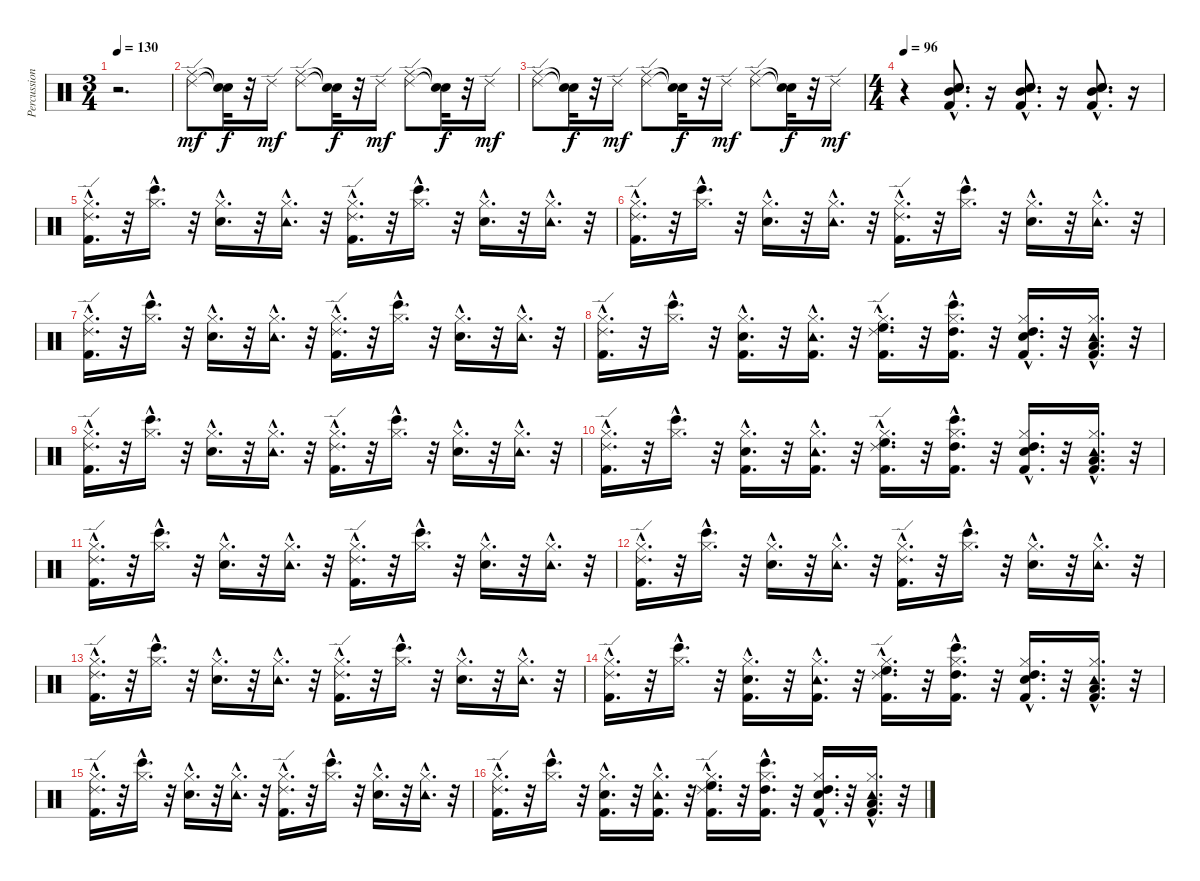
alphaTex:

\track ("Percussion (Channel 10)" "Percussion") {instrument percussion}
\staff {score}
\articulation defaults
\ts (3 4)
\tempo 130
\clef neutral
\ks c
r.2{d dy f} |
("Ride (edge) 2" "Ride (middle)").8{dy mf} ("Snare (hit)"{t} "Snare (hit)"{t}).32{dy f} r.32 "Ride (edge) 2".16{dy mf} ("Ride (edge) 2" "Ride (middle)").8 ("Snare (hit)"{t} "Snare (hit)"{t}).32{dy f} r.32 "Ride (edge) 2".16{dy mf} ("Ride (edge) 2" "Ride (middle)").8 ("Snare (hit)"{t} "Snare (hit)"{t}).32{dy f} r.32 "Ride (edge) 2".16{dy mf} |
("Ride (edge) 2" "Ride (middle)").8 ("Snare (hit)"{t} "Snare (hit)"{t}).32{dy f} r.32 "Ride (edge) 2".16{dy mf} ("Ride (edge) 2" "Ride (middle)").8 ("Snare (hit)"{t} "Snare (hit)"{t}).32{dy f} r.32 "Ride (edge) 2".16{dy mf} ("Ride (edge) 2" "Ride (middle)").8 ("Snare (hit)"{t} "Snare (hit)"{t}).32{dy f} r.32 "Ride (edge) 2".16{dy mf} |
\ts (4 4)
\tempo 96
r.4 ("Mid Tom (hit)"{hac} "Electric Snare (hit)"{hac} "Kick (hit) 2"{hac} "Snare (hit) 2"{hac}).8{d} r.16 ("Mid Tom (hit)"{hac} "Electric Snare (hit)"{hac} "Kick (hit) 2"{hac} "Snare (hit) 2"{hac}).8{d} r.16 ("Snare (hit) 2"{hac} "Kick (hit) 2"{hac} "Electric Snare (hit)"{hac} "Mid Tom (hit)"{hac}).8{d} r.16 |
("Hi-Hat (closed)"{hac} "Kick (hit) 2"{hac} "Ride (edge) 2"{hac}).16{d} r.32 ("Hi-Hat (closed)"{hac} "Bongo High (hit)"{hac}).16{d} r.32 ("Hi-Hat (closed)"{hac} "Snare (hit) 2"{hac}).16{d} r.32 ("Hi-Hat (closed)"{hac} "Tambourine (hit)"{hac}).16{d} r.32 ("Hi-Hat (closed)"{hac} "Kick (hit) 2"{hac} "Ride (edge) 2"{hac}).16{d} r.32 ("Hi-Hat (closed)"{hac} "Bongo High (hit)"{hac}).16{d} r.32 ("Hi-Hat (closed)"{hac} "Snare (hit) 2"{hac}).16{d} r.32 ("Hi-Hat (closed)"{hac} "Tambourine (hit)"{hac}).16{d} r.32 |
("Ride (edge) 2"{hac} "Kick (hit) 2"{hac} "Hi-Hat (closed)"{hac}).16{d} r.32 ("Bongo High (hit)"{hac} "Hi-Hat (closed)"{hac}).16{d} r.32 ("Snare (hit) 2"{hac} "Hi-Hat (closed)"{hac}).16{d} r.32 ("Hi-Hat (closed)"{hac} "Tambourine (hit)"{hac}).16{d} r.32 ("Ride (edge) 2"{hac} "Kick (hit) 2"{hac} "Hi-Hat (closed)"{hac}).16{d} r.32 ("Bongo High (hit)"{hac} "Hi-Hat (closed)"{hac}).16{d} r.32 ("Hi-Hat (closed)"{hac} "Snare (hit) 2"{hac}).16{d} r.32 ("Tambourine (hit)"{hac} "Hi-Hat (closed)"{hac}).16{d} r.32 |
("Ride (edge) 2"{hac} "Kick (hit) 2"{hac} "Hi-Hat (closed)"{hac}).16{d} r.32 ("Bongo High (hit)"{hac} "Hi-Hat (closed)"{hac}).16{d} r.32 ("Snare (hit) 2"{hac} "Hi-Hat (closed)"{hac}).16{d} r.32 ("Tambourine (hit)"{hac} "Hi-Hat (closed)"{hac}).16{d} r.32 ("Ride (edge) 2"{hac} "Kick (hit) 2"{hac} "Hi-Hat (closed)"{hac}).16{d} r.32 ("Bongo High (hit)"{hac} "Hi-Hat (closed)"{hac}).16{d} r.32 ("Snare (hit) 2"{hac} "Hi-Hat (closed)"{hac}).16{d} r.32 ("Tambourine (hit)"{hac} "Hi-Hat (closed)"{hac}).16{d} r.32 |
("Hi-Hat (closed)"{hac} "Kick (hit) 2"{hac} "Ride (edge) 2"{hac}).16{d} r.32 ("Hi-Hat (closed)"{hac} "Bongo High (hit)"{hac}).16{d} r.32 ("Kick (hit) 2"{hac} "Hi-Hat (closed)"{hac} "Snare (hit) 2"{hac}).16{d} r.32 ("Kick (hit) 2"{hac} "Hi-Hat (closed)"{hac} "Tambourine (hit)"{hac}).16{d} r.32 ("High Floor Tom (hit)"{hac} "Hi-Hat (closed)"{hac} "Kick (hit) 2"{hac} "Ride (edge) 2"{hac}).16{d} r.32 ("High Tom (hit)"{hac} "Kick (hit) 2"{hac} "Hi-Hat (closed)"{hac} "Bongo High (hit)"{hac}).16{d} r.32 ("High Tom (hit)"{hac} "Kick (hit) 2"{hac} "Hi-Hat (closed)"{hac} "Snare (hit) 2"{hac}).16{d} r.32 ("Low Tom (hit)"{hac} "Kick (hit) 2"{hac} "Hi-Hat (closed)"{hac} "Tambourine (hit)"{hac}).16{d} r.32 |
("Ride (edge) 2"{hac} "Kick (hit) 2"{hac} "Hi-Hat (closed)"{hac}).16{d} r.32 ("Bongo High (hit)"{hac} "Hi-Hat (closed)"{hac}).16{d} r.32 ("Snare (hit) 2"{hac} "Hi-Hat (closed)"{hac}).16{d} r.32 ("Tambourine (hit)"{hac} "Hi-Hat (closed)"{hac}).16{d} r.32 ("Ride (edge) 2"{hac} "Kick (hit) 2"{hac} "Hi-Hat (closed)"{hac}).16{d} r.32 ("Bongo High (hit)"{hac} "Hi-Hat (closed)"{hac}).16{d} r.32 ("Snare (hit) 2"{hac} "Hi-Hat (closed)"{hac}).16{d} r.32 ("Tambourine (hit)"{hac} "Hi-Hat (closed)"{hac}).16{d} r.32 |
("Ride (edge) 2"{hac} "Kick (hit) 2"{hac} "Hi-Hat (closed)"{hac}).16{d} r.32 ("Bongo High (hit)"{hac} "Hi-Hat (closed)"{hac}).16{d} r.32 ("Snare (hit) 2"{hac} "Hi-Hat (closed)"{hac} "Kick (hit) 2"{hac}).16{d} r.32 ("Tambourine (hit)"{hac} "Hi-Hat (closed)"{hac} "Kick (hit) 2"{hac}).16{d} r.32 ("Ride (edge) 2"{hac} "Kick (hit) 2"{hac} "Hi-Hat (closed)"{hac} "High Floor Tom (hit)"{hac}).16{d} r.32 ("Bongo High (hit)"{hac} "Hi-Hat (closed)"{hac} "Kick (hit) 2"{hac} "High Tom (hit)"{hac}).16{d} r.32 ("Snare (hit) 2"{hac} "Hi-Hat (closed)"{hac} "Kick (hit) 2"{hac} "High Tom (hit)"{hac}).16{d} r.32 ("Tambourine (hit)"{hac} "Hi-Hat (closed)"{hac} "Kick (hit) 2"{hac} "Low Tom (hit)"{hac}).16{d} r.32 |
("Ride (edge) 2"{hac} "Kick (hit) 2"{hac} "Hi-Hat (closed)"{hac}).16{d} r.32 ("Bongo High (hit)"{hac} "Hi-Hat (closed)"{hac}).16{d} r.32 ("Snare (hit) 2"{hac} "Hi-Hat (closed)"{hac}).16{d} r.32 ("Hi-Hat (closed)"{hac} "Tambourine (hit)"{hac}).16{d} r.32 ("Kick (hit) 2"{hac} "Hi-Hat (closed)"{hac} "Ride (edge) 2"{hac}).16{d} r.32 ("Hi-Hat (closed)"{hac} "Bongo High (hit)"{hac}).16{d} r.32 ("Snare (hit) 2"{hac} "Hi-Hat (closed)"{hac}).16{d} r.32 ("Hi-Hat (closed)"{hac} "Tambourine (hit)"{hac}).16{d} r.32 |
("Hi-Hat (closed)"{hac} "Kick (hit) 2"{hac} "Ride (edge) 2"{hac}).16{d} r.32 ("Hi-Hat (closed)"{hac} "Bongo High (hit)"{hac}).16{d} r.32 ("Hi-Hat (closed)"{hac} "Snare (hit) 2"{hac}).16{d} r.32 ("Tambourine (hit)"{hac} "Hi-Hat (closed)"{hac}).16{d} r.32 ("Ride (edge) 2"{hac} "Hi-Hat (closed)"{hac} "Kick (hit) 2"{hac}).16{d} r.32 ("Bongo High (hit)"{hac} "Hi-Hat (closed)"{hac}).16{d} r.32 ("Hi-Hat (closed)"{hac} "Snare (hit) 2"{hac}).16{d} r.32 ("Tambourine (hit)"{hac} "Hi-Hat (closed)"{hac}).16{d} r.32 |
("Hi-Hat (closed)"{hac} "Kick (hit) 2"{hac} "Ride (edge) 2"{hac}).16{d} r.32 ("Hi-Hat (closed)"{hac} "Bongo High (hit)"{hac}).16{d} r.32 ("Hi-Hat (closed)"{hac} "Snare (hit) 2"{hac}).16{d} r.32 ("Hi-Hat (closed)"{hac} "Tambourine (hit)"{hac}).16{d} r.32 ("Hi-Hat (closed)"{hac} "Kick (hit) 2"{hac} "Ride (edge) 2"{hac}).16{d} r.32 ("Hi-Hat (closed)"{hac} "Bongo High (hit)"{hac}).16{d} r.32 ("Hi-Hat (closed)"{hac} "Snare (hit) 2"{hac}).16{d} r.32 ("Hi-Hat (closed)"{hac} "Tambourine (hit)"{hac}).16{d} r.32 |
("Hi-Hat (closed)"{hac} "Kick (hit) 2"{hac} "Ride (edge) 2"{hac}).16{d} r.32 ("Hi-Hat (closed)"{hac} "Bongo High (hit)"{hac}).16{d} r.32 ("Kick (hit) 2"{hac} "Hi-Hat (closed)"{hac} "Snare (hit) 2"{hac}).16{d} r.32 ("Kick (hit) 2"{hac} "Hi-Hat (closed)"{hac} "Tambourine (hit)"{hac}).16{d} r.32 ("High Floor Tom (hit)"{hac} "Hi-Hat (closed)"{hac} "Kick (hit) 2"{hac} "Ride (edge) 2"{hac}).16{d} r.32 ("High Tom (hit)"{hac} "Kick (hit) 2"{hac} "Hi-Hat (closed)"{hac} "Bongo High (hit)"{hac}).16{d} r.32 ("High Tom (hit)"{hac} "Kick (hit) 2"{hac} "Hi-Hat (closed)"{hac} "Snare (hit) 2"{hac}).16{d} r.32 ("Low Tom (hit)"{hac} "Kick (hit) 2"{hac} "Hi-Hat (closed)"{hac} "Tambourine (hit)"{hac}).16{d} r.32 |
("Hi-Hat (closed)"{hac} "Kick (hit) 2"{hac} "Ride (edge) 2"{hac}).16{d} r.32 ("Hi-Hat (closed)"{hac} "Bongo High (hit)"{hac}).16{d} r.32 ("Hi-Hat (closed)"{hac} "Snare (hit) 2"{hac}).16{d} r.32 ("Hi-Hat (closed)"{hac} "Tambourine (hit)"{hac}).16{d} r.32 ("Hi-Hat (closed)"{hac} "Kick (hit) 2"{hac} "Ride (edge) 2"{hac}).16{d} r.32 ("Hi-Hat (closed)"{hac} "Bongo High (hit)"{hac}).16{d} r.32 ("Hi-Hat (closed)"{hac} "Snare (hit) 2"{hac}).16{d} r.32 ("Hi-Hat (closed)"{hac} "Tambourine (hit)"{hac}).16{d} r.32 |
("Ride (edge) 2"{hac} "Kick (hit) 2"{hac} "Hi-Hat (closed)"{hac}).16{d} r.32 ("Bongo High (hit)"{hac} "Hi-Hat (closed)"{hac}).16{d} r.32 ("Snare (hit) 2"{hac} "Hi-Hat (closed)"{hac} "Kick (hit) 2"{hac}).16{d} r.32 ("Tambourine (hit)"{hac} "Hi-Hat (closed)"{hac} "Kick (hit) 2"{hac}).16{d} r.32 ("Ride (edge) 2"{hac} "Kick (hit) 2"{hac} "Hi-Hat (closed)"{hac} "High Floor Tom (hit)"{hac}).16{d} r.32 ("Bongo High (hit)"{hac} "Hi-Hat (closed)"{hac} "Kick (hit) 2"{hac} "High Tom (hit)"{hac}).16{d} r.32 ("Snare (hit) 2"{hac} "Hi-Hat (closed)"{hac} "Kick (hit) 2"{hac} "High Tom (hit)"{hac}).16{d} r.32 ("Tambourine (hit)"{hac} "Hi-Hat (closed)"{hac} "Kick (hit) 2"{hac} "Low Tom (hit)"{hac}).16{d} r.32
